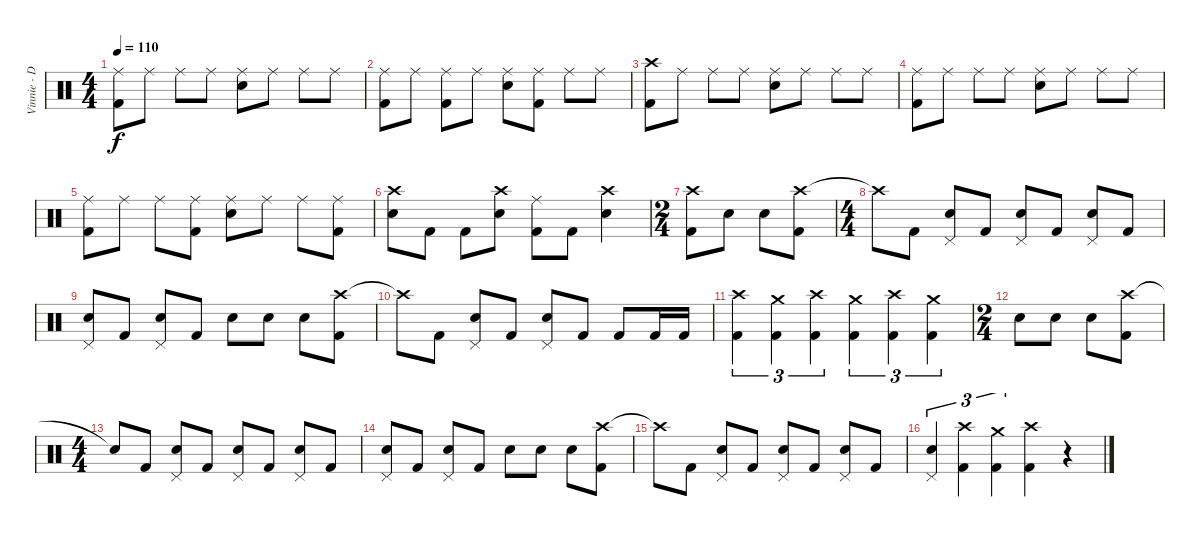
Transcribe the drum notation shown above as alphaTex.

\track ("Vinnie - Drums" "Vinnie - D") {instrument percussion}
\staff {score}
\articulation defaults
\ts (4 4)
\tempo 110
\clef neutral
\ks c
("Ride (middle)" "Kick (hit) 2").8{dy f} "Ride (middle)".8 "Ride (middle)".8 "Ride (middle)".8 ("Ride (middle)" "Electric Snare (hit)").8 "Ride (middle)".8 "Ride (middle)".8 "Ride (middle)".8 |
("Ride (middle)" "Kick (hit) 2").8 "Ride (middle)".8 ("Ride (middle)" "Kick (hit) 2").8 "Ride (middle)".8 ("Ride (middle)" "Electric Snare (hit)").8 ("Ride (middle)" "Kick (hit) 2").8 "Ride (middle)".8 "Ride (middle)".8 |
("Crash high (hit)" "Kick (hit) 2").8 "Ride (middle)".8 "Ride (middle)".8 "Ride (middle)".8 ("Ride (middle)" "Electric Snare (hit)").8 "Ride (middle)".8 "Ride (middle)".8 "Ride (middle)".8 |
("Ride (middle)" "Kick (hit) 2").8 "Ride (middle)".8 "Ride (middle)".8 "Ride (middle)".8 ("Ride (middle)" "Electric Snare (hit)").8 "Ride (middle)".8 "Ride (middle)".8 "Ride (middle)".8 |
("Ride (middle)" "Kick (hit) 2").8 "Ride (middle)".8 "Ride (middle)".8 ("Ride (middle)" "Kick (hit) 2").8 ("Ride (middle)" "Electric Snare (hit)").8 "Ride (middle)".8 "Ride (middle)".8 ("Ride (middle)" "Kick (hit) 2").8 |
("Crash high (hit)" "Electric Snare (hit)").8 "Kick (hit) 2".8 "Kick (hit) 2".8 ("Crash high (hit)" "Electric Snare (hit)").8 ("Ride (middle)" "Kick (hit) 2").8 "Kick (hit) 2".8 ("Crash high (hit)" "Electric Snare (hit)").4 |
\ts (2 4)
("Crash high (hit)" "Kick (hit) 2").8 "Electric Snare (hit)".8 "Electric Snare (hit)".8 ("Crash high (hit)" "Kick (hit) 2").8 |
\ts (4 4)
"Crash high (hit)"{t}.8 "Kick (hit) 2".8 ("Pedal Hi-Hat (hit)" "Electric Snare (hit)").8 "Kick (hit) 2".8 ("Pedal Hi-Hat (hit)" "Electric Snare (hit)").8 "Kick (hit) 2".8 ("Pedal Hi-Hat (hit)" "Electric Snare (hit)").8 "Kick (hit) 2".8 |
("Pedal Hi-Hat (hit)" "Electric Snare (hit)").8 "Kick (hit) 2".8 ("Pedal Hi-Hat (hit)" "Electric Snare (hit)").8 "Kick (hit) 2".8 "Electric Snare (hit)".8 "Electric Snare (hit)".8 "Electric Snare (hit)".8 ("Crash high (hit)" "Kick (hit) 2").8 |
"Crash high (hit)"{t}.8 "Kick (hit) 2".8 ("Pedal Hi-Hat (hit)" "Electric Snare (hit)").8 "Kick (hit) 2".8 ("Pedal Hi-Hat (hit)" "Electric Snare (hit)").8 "Kick (hit) 2".8 "Kick (hit) 2".8 "Kick (hit) 2".16 "Kick (hit) 2".16 |
("Crash high (hit)" "Kick (hit) 2").4{tu (3 2)} ("Crash medium (hit)" "Kick (hit) 2").4{tu (3 2)} ("Crash high (hit)" "Kick (hit) 2").4{tu (3 2)} ("Crash medium (hit)" "Kick (hit) 2").4{tu (3 2)} ("Crash high (hit)" "Kick (hit) 2").4{tu (3 2)} ("Crash medium (hit)" "Kick (hit) 2").4{tu (3 2)} |
\ts (2 4)
"Electric Snare (hit)".8 "Electric Snare (hit)".8 "Electric Snare (hit)".8 ("Crash high (hit)" "Kick (hit) 2").8 |
\ts (4 4)
"Snare (hit)"{t}.8 "Kick (hit) 2".8 ("Pedal Hi-Hat (hit)" "Electric Snare (hit)").8 "Kick (hit) 2".8 ("Pedal Hi-Hat (hit)" "Electric Snare (hit)").8 "Kick (hit) 2".8 ("Pedal Hi-Hat (hit)" "Electric Snare (hit)").8 "Kick (hit) 2".8 |
("Pedal Hi-Hat (hit)" "Electric Snare (hit)").8 "Kick (hit) 2".8 ("Pedal Hi-Hat (hit)" "Electric Snare (hit)").8 "Kick (hit) 2".8 "Electric Snare (hit)".8 "Electric Snare (hit)".8 "Electric Snare (hit)".8 ("Crash high (hit)" "Kick (hit) 2").8 |
"Crash high (hit)"{t}.8 "Kick (hit) 2".8 ("Pedal Hi-Hat (hit)" "Electric Snare (hit)").8 "Kick (hit) 2".8 ("Pedal Hi-Hat (hit)" "Electric Snare (hit)").8 "Kick (hit) 2".8 ("Pedal Hi-Hat (hit)" "Electric Snare (hit)").8 "Kick (hit) 2".8 |
("Pedal Hi-Hat (hit)" "Electric Snare (hit)").4{tu (3 2)} ("Crash high (hit)" "Kick (hit) 2").4{tu (3 2)} ("Crash medium (hit)" "Kick (hit) 2").4{tu (3 2)} ("Crash high (hit)" "Kick (hit) 2").4 r.4
